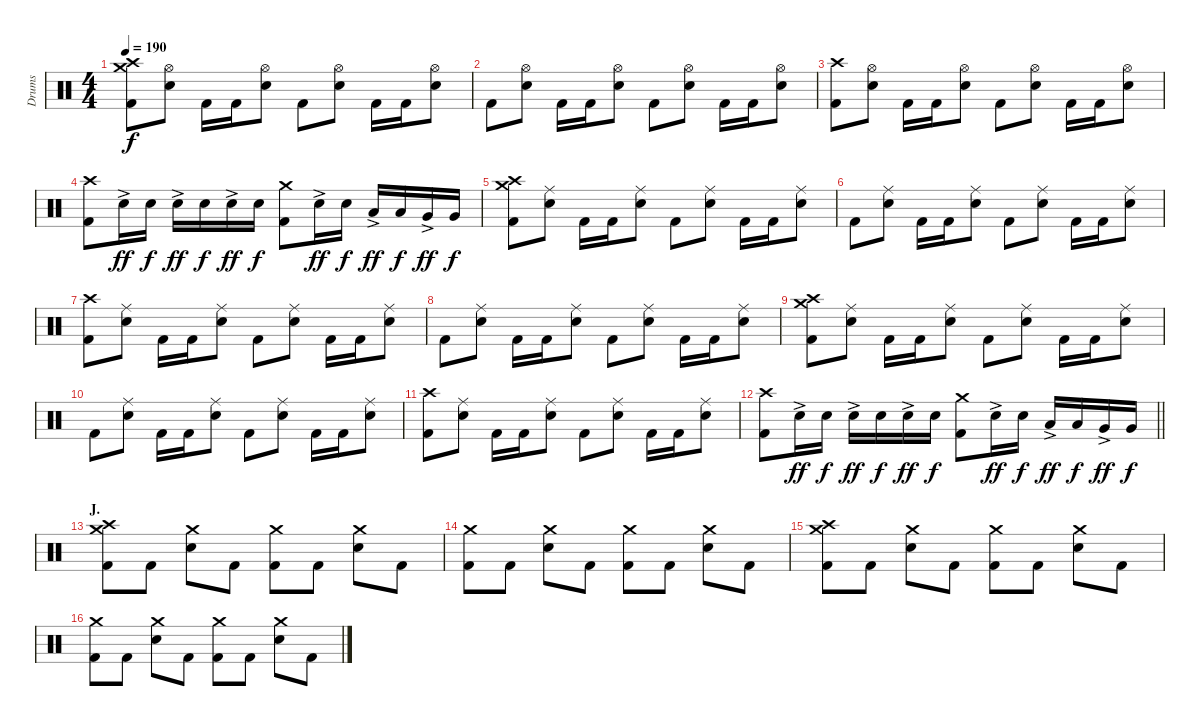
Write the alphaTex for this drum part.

\track ("Drums" "Drums") {instrument percussion}
\staff {score}
\articulation defaults
\ts (4 4)
\tempo 190
\clef neutral
\ks c
("Crash medium (hit)" "Crash high (hit)" "Kick (hit) 2").8{dy f} ("Hi-Hat (open)" "Electric Snare (hit)").8 "Kick (hit) 2".16 "Kick (hit) 2".16 ("Hi-Hat (open)" "Electric Snare (hit)").8 "Kick (hit) 2".8 ("Hi-Hat (open)" "Electric Snare (hit)").8 "Kick (hit) 2".16 "Kick (hit) 2".16 ("Hi-Hat (open)" "Electric Snare (hit)").8 |
"Kick (hit) 2".8 ("Hi-Hat (open)" "Electric Snare (hit)").8 "Kick (hit) 2".16 "Kick (hit) 2".16 ("Hi-Hat (open)" "Electric Snare (hit)").8 "Kick (hit) 2".8 ("Hi-Hat (open)" "Electric Snare (hit)").8 "Kick (hit) 2".16 "Kick (hit) 2".16 ("Hi-Hat (open)" "Electric Snare (hit)").8 |
("Crash high (hit)" "Kick (hit) 2").8 ("Hi-Hat (open)" "Electric Snare (hit)").8 "Kick (hit) 2".16 "Kick (hit) 2".16 ("Hi-Hat (open)" "Electric Snare (hit)").8 "Kick (hit) 2".8 ("Hi-Hat (open)" "Electric Snare (hit)").8 "Kick (hit) 2".16 "Kick (hit) 2".16 ("Hi-Hat (open)" "Electric Snare (hit)").8 |
("Crash high (hit)" "Kick (hit) 2").8 "Electric Snare (hit)"{ac}.16{dy ff} "Electric Snare (hit)".16{dy f} "Electric Snare (hit)"{ac}.16{dy ff} "Electric Snare (hit)".16{dy f} "Electric Snare (hit)"{ac}.16{dy ff} "Electric Snare (hit)".16{dy f} ("Crash medium (hit)" "Kick (hit) 2").8 "Electric Snare (hit)"{ac}.16{dy ff} "Electric Snare (hit)".16{dy f} "Low Tom (hit)"{ac}.16{dy ff} "Low Tom (hit)".16{dy f} "Very Low Tom (hit)"{ac}.16{dy ff} "Very Low Tom (hit)".16{dy f} |
("Crash medium (hit)" "Crash high (hit)" "Kick (hit) 2").8 ("Ride (middle)" "Electric Snare (hit)").8 "Kick (hit) 2".16 "Kick (hit) 2".16 ("Ride (middle)" "Electric Snare (hit)").8 "Kick (hit) 2".8 ("Ride (middle)" "Electric Snare (hit)").8 "Kick (hit) 2".16 "Kick (hit) 2".16 ("Ride (middle)" "Electric Snare (hit)").8 |
"Kick (hit) 2".8 ("Ride (middle)" "Electric Snare (hit)").8 "Kick (hit) 2".16 "Kick (hit) 2".16 ("Ride (middle)" "Electric Snare (hit)").8 "Kick (hit) 2".8 ("Ride (middle)" "Electric Snare (hit)").8 "Kick (hit) 2".16 "Kick (hit) 2".16 ("Ride (middle)" "Electric Snare (hit)").8 |
("Crash high (hit)" "Kick (hit) 2").8 ("Ride (middle)" "Electric Snare (hit)").8 "Kick (hit) 2".16 "Kick (hit) 2".16 ("Ride (middle)" "Electric Snare (hit)").8 "Kick (hit) 2".8 ("Ride (middle)" "Electric Snare (hit)").8 "Kick (hit) 2".16 "Kick (hit) 2".16 ("Ride (middle)" "Electric Snare (hit)").8 |
"Kick (hit) 2".8 ("Ride (middle)" "Electric Snare (hit)").8 "Kick (hit) 2".16 "Kick (hit) 2".16 ("Ride (middle)" "Electric Snare (hit)").8 "Kick (hit) 2".8 ("Ride (middle)" "Electric Snare (hit)").8 "Kick (hit) 2".16 "Kick (hit) 2".16 ("Ride (middle)" "Electric Snare (hit)").8 |
("Crash medium (hit)" "Crash high (hit)" "Kick (hit) 2").8 ("Ride (middle)" "Electric Snare (hit)").8 "Kick (hit) 2".16 "Kick (hit) 2".16 ("Ride (middle)" "Electric Snare (hit)").8 "Kick (hit) 2".8 ("Ride (middle)" "Electric Snare (hit)").8 "Kick (hit) 2".16 "Kick (hit) 2".16 ("Ride (middle)" "Electric Snare (hit)").8 |
"Kick (hit) 2".8 ("Ride (middle)" "Electric Snare (hit)").8 "Kick (hit) 2".16 "Kick (hit) 2".16 ("Ride (middle)" "Electric Snare (hit)").8 "Kick (hit) 2".8 ("Ride (middle)" "Electric Snare (hit)").8 "Kick (hit) 2".16 "Kick (hit) 2".16 ("Ride (middle)" "Electric Snare (hit)").8 |
("Crash high (hit)" "Kick (hit) 2").8 ("Ride (middle)" "Electric Snare (hit)").8 "Kick (hit) 2".16 "Kick (hit) 2".16 ("Ride (middle)" "Electric Snare (hit)").8 "Kick (hit) 2".8 ("Ride (middle)" "Electric Snare (hit)").8 "Kick (hit) 2".16 "Kick (hit) 2".16 ("Ride (middle)" "Electric Snare (hit)").8 |
\barLineRight lightlight
("Crash high (hit)" "Kick (hit) 2").8 "Electric Snare (hit)"{ac}.16{dy ff} "Electric Snare (hit)".16{dy f} "Electric Snare (hit)"{ac}.16{dy ff} "Electric Snare (hit)".16{dy f} "Electric Snare (hit)"{ac}.16{dy ff} "Electric Snare (hit)".16{dy f} ("Crash medium (hit)" "Kick (hit) 2").8 "Electric Snare (hit)"{ac}.16{dy ff} "Electric Snare (hit)".16{dy f} "Low Tom (hit)"{ac}.16{dy ff} "Low Tom (hit)".16{dy f} "Very Low Tom (hit)"{ac}.16{dy ff} "Very Low Tom (hit)".16{dy f} |
\section ("" "J.")
("Crash medium (hit)" "Crash high (hit)" "Kick (hit) 2").8 "Kick (hit) 2".8 ("Crash medium (hit)" "Electric Snare (hit)").8 "Kick (hit) 2".8 ("Crash medium (hit)" "Kick (hit) 2").8 "Kick (hit) 2".8 ("Crash medium (hit)" "Electric Snare (hit)").8 "Kick (hit) 2".8 |
("Crash medium (hit)" "Kick (hit) 2").8 "Kick (hit) 2".8 ("Crash medium (hit)" "Electric Snare (hit)").8 "Kick (hit) 2".8 ("Crash medium (hit)" "Kick (hit) 2").8 "Kick (hit) 2".8 ("Crash medium (hit)" "Electric Snare (hit)").8 "Kick (hit) 2".8 |
("Crash medium (hit)" "Crash high (hit)" "Kick (hit) 2").8 "Kick (hit) 2".8 ("Crash medium (hit)" "Electric Snare (hit)").8 "Kick (hit) 2".8 ("Crash medium (hit)" "Kick (hit) 2").8 "Kick (hit) 2".8 ("Crash medium (hit)" "Electric Snare (hit)").8 "Kick (hit) 2".8 |
("Crash medium (hit)" "Kick (hit) 2").8 "Kick (hit) 2".8 ("Crash medium (hit)" "Electric Snare (hit)").8 "Kick (hit) 2".8 ("Crash medium (hit)" "Kick (hit) 2").8 "Kick (hit) 2".8 ("Crash medium (hit)" "Electric Snare (hit)").8 "Kick (hit) 2".8
